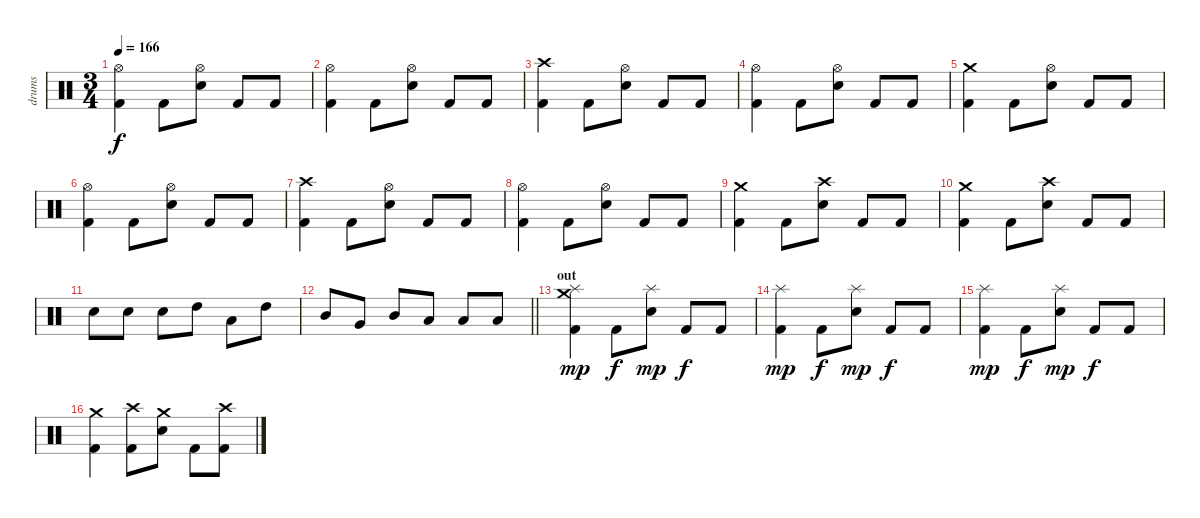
\track ("drums" "drums") {instrument percussion}
\staff {score}
\articulation defaults
\ts (3 4)
\tempo 166
\clef neutral
\ks c
("Hi-Hat (open)" "Kick (hit) 2").4{dy f} "Kick (hit) 2".8 ("Hi-Hat (open)" "Electric Snare (hit)").8 "Kick (hit) 2".8 "Kick (hit) 2".8 |
("Hi-Hat (open)" "Kick (hit) 2").4 "Kick (hit) 2".8 ("Hi-Hat (open)" "Electric Snare (hit)").8 "Kick (hit) 2".8 "Kick (hit) 2".8 |
("Crash high (hit)" "Kick (hit) 2").4 "Kick (hit) 2".8 ("Hi-Hat (open)" "Electric Snare (hit)").8 "Kick (hit) 2".8 "Kick (hit) 2".8 |
("Hi-Hat (open)" "Kick (hit) 2").4 "Kick (hit) 2".8 ("Hi-Hat (open)" "Electric Snare (hit)").8 "Kick (hit) 2".8 "Kick (hit) 2".8 |
("Crash medium (hit)" "Kick (hit) 2").4 "Kick (hit) 2".8 ("Hi-Hat (open)" "Electric Snare (hit)").8 "Kick (hit) 2".8 "Kick (hit) 2".8 |
("Hi-Hat (open)" "Kick (hit) 2").4 "Kick (hit) 2".8 ("Hi-Hat (open)" "Electric Snare (hit)").8 "Kick (hit) 2".8 "Kick (hit) 2".8 |
("Crash high (hit)" "Kick (hit) 2").4 "Kick (hit) 2".8 ("Hi-Hat (open)" "Electric Snare (hit)").8 "Kick (hit) 2".8 "Kick (hit) 2".8 |
("Hi-Hat (open)" "Kick (hit) 2").4 "Kick (hit) 2".8 ("Hi-Hat (open)" "Electric Snare (hit)").8 "Kick (hit) 2".8 "Kick (hit) 2".8 |
("Crash medium (hit)" "Kick (hit) 2").4 "Kick (hit) 2".8 ("Crash high (hit)" "Electric Snare (hit)").8 "Kick (hit) 2".8 "Kick (hit) 2".8 |
("Crash medium (hit)" "Kick (hit) 2").4 "Kick (hit) 2".8 ("Crash high (hit)" "Electric Snare (hit)").8 "Kick (hit) 2".8 "Kick (hit) 2".8 |
"Electric Snare (hit)".8 "Electric Snare (hit)".8 "Electric Snare (hit)".8 "High Tom (hit)".8 "Low Tom (hit)".8 "High Tom (hit)".8 |
\barLineRight lightlight "Mid Tom (hit)".8 "Very Low Tom (hit)".8 "Mid Tom (hit)".8 "Low Tom (hit)".8 "Low Floor Tom (hit)".8 "Low Tom (hit)".8
|
\section ("" "out")
("Crash medium (hit)" "Splash (hit)" "Kick (hit) 2").4{dy mp} "Kick (hit) 2".8{dy f} ("Splash (hit)" "Electric Snare (hit)").8{dy mp} "Kick (hit) 2".8{dy f} "Kick (hit) 2".8 |
("Splash (hit)" "Kick (hit) 2").4{dy mp} "Kick (hit) 2".8{dy f} ("Splash (hit)" "Electric Snare (hit)").8{dy mp} "Kick (hit) 2".8{dy f} "Kick (hit) 2".8 |
("Splash (hit)" "Kick (hit) 2").4{dy mp} "Kick (hit) 2".8{dy f} ("Splash (hit)" "Electric Snare (hit)").8{dy mp} "Kick (hit) 2".8{dy f} "Kick (hit) 2".8 |
("Crash medium (hit)" "Kick (hit) 2").4 ("Crash high (hit)" "Kick (hit) 2").8 ("Crash medium (hit)" "Electric Snare (hit)").8 "Kick (hit) 2".8 ("Crash high (hit)" "Kick (hit) 2").8
